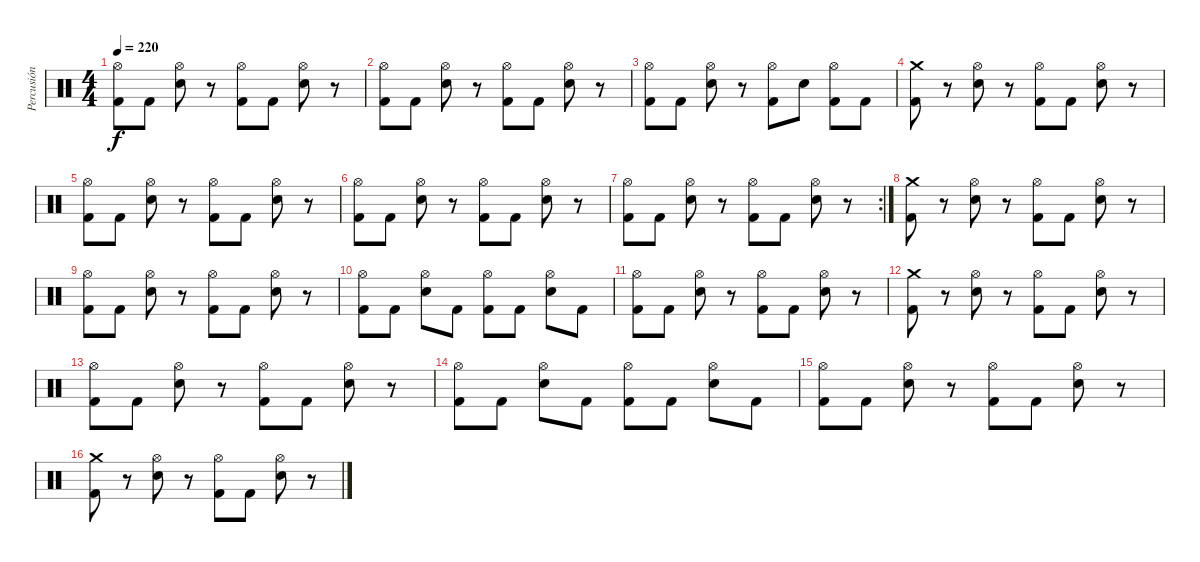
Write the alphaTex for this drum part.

\track ("Percusión" "Percusión") {instrument percussion}
\staff {score}
\articulation defaults
\ts (4 4)
\tempo 220
\clef neutral
\ks c
("Hi-Hat (open)" "Kick (hit) 2").8{dy f} "Kick (hit) 2".8 ("Hi-Hat (open)" "Electric Snare (hit)").8 r.8 ("Hi-Hat (open)" "Kick (hit) 2").8 "Kick (hit) 2".8 ("Hi-Hat (open)" "Electric Snare (hit)").8 r.8 |
("Hi-Hat (open)" "Kick (hit) 2").8 "Kick (hit) 2".8 ("Hi-Hat (open)" "Electric Snare (hit)").8 r.8 ("Hi-Hat (open)" "Kick (hit) 2").8 "Kick (hit) 2".8 ("Hi-Hat (open)" "Electric Snare (hit)").8 r.8 |
("Hi-Hat (open)" "Kick (hit) 2").8 "Kick (hit) 2".8 ("Hi-Hat (open)" "Electric Snare (hit)").8 r.8 ("Hi-Hat (open)" "Kick (hit) 2").8 "Electric Snare (hit)".8 ("Hi-Hat (open)" "Kick (hit) 2").8 "Kick (hit) 2".8 |
("Crash medium (hit)" "Kick (hit) 2").8 r.8 ("Hi-Hat (open)" "Electric Snare (hit)").8 r.8 ("Hi-Hat (open)" "Kick (hit) 2").8 "Kick (hit) 2".8 ("Hi-Hat (open)" "Electric Snare (hit)").8 r.8 |
("Hi-Hat (open)" "Kick (hit) 2").8 "Kick (hit) 2".8 ("Hi-Hat (open)" "Electric Snare (hit)").8 r.8 ("Hi-Hat (open)" "Kick (hit) 2").8 "Kick (hit) 2".8 ("Hi-Hat (open)" "Electric Snare (hit)").8 r.8 |
("Hi-Hat (open)" "Kick (hit) 2").8 "Kick (hit) 2".8 ("Hi-Hat (open)" "Electric Snare (hit)").8 r.8 ("Hi-Hat (open)" "Kick (hit) 2").8 "Kick (hit) 2".8 ("Hi-Hat (open)" "Electric Snare (hit)").8 r.8 |
\rc 2
("Hi-Hat (open)" "Kick (hit) 2").8 "Kick (hit) 2".8 ("Hi-Hat (open)" "Electric Snare (hit)").8 r.8 ("Hi-Hat (open)" "Kick (hit) 2").8 "Kick (hit) 2".8 ("Hi-Hat (open)" "Electric Snare (hit)").8 r.8 |
("Crash medium (hit)" "Kick (hit) 2").8 r.8 ("Hi-Hat (open)" "Electric Snare (hit)").8 r.8 ("Hi-Hat (open)" "Kick (hit) 2").8 "Kick (hit) 2".8 ("Hi-Hat (open)" "Electric Snare (hit)").8 r.8 |
("Hi-Hat (open)" "Kick (hit) 2").8 "Kick (hit) 2".8 ("Hi-Hat (open)" "Electric Snare (hit)").8 r.8 ("Hi-Hat (open)" "Kick (hit) 2").8 "Kick (hit) 2".8 ("Hi-Hat (open)" "Electric Snare (hit)").8 r.8 |
("Hi-Hat (open)" "Kick (hit) 2").8 "Kick (hit) 2".8 ("Hi-Hat (open)" "Electric Snare (hit)").8 "Kick (hit) 2".8 ("Hi-Hat (open)" "Kick (hit) 2").8 "Kick (hit) 2".8 ("Hi-Hat (open)" "Electric Snare (hit)").8 "Kick (hit) 2".8 |
("Hi-Hat (open)" "Kick (hit) 2").8 "Kick (hit) 2".8 ("Hi-Hat (open)" "Electric Snare (hit)").8 r.8 ("Hi-Hat (open)" "Kick (hit) 2").8 "Kick (hit) 2".8 ("Hi-Hat (open)" "Electric Snare (hit)").8 r.8 |
("Crash medium (hit)" "Kick (hit) 2").8 r.8 ("Hi-Hat (open)" "Electric Snare (hit)").8 r.8 ("Hi-Hat (open)" "Kick (hit) 2").8 "Kick (hit) 2".8 ("Hi-Hat (open)" "Electric Snare (hit)").8 r.8 |
("Hi-Hat (open)" "Kick (hit) 2").8 "Kick (hit) 2".8 ("Hi-Hat (open)" "Electric Snare (hit)").8 r.8 ("Hi-Hat (open)" "Kick (hit) 2").8 "Kick (hit) 2".8 ("Hi-Hat (open)" "Electric Snare (hit)").8 r.8 |
("Hi-Hat (open)" "Kick (hit) 2").8 "Kick (hit) 2".8 ("Hi-Hat (open)" "Electric Snare (hit)").8 "Kick (hit) 2".8 ("Hi-Hat (open)" "Kick (hit) 2").8 "Kick (hit) 2".8 ("Hi-Hat (open)" "Electric Snare (hit)").8 "Kick (hit) 2".8 |
("Hi-Hat (open)" "Kick (hit) 2").8 "Kick (hit) 2".8 ("Hi-Hat (open)" "Electric Snare (hit)").8 r.8 ("Hi-Hat (open)" "Kick (hit) 2").8 "Kick (hit) 2".8 ("Hi-Hat (open)" "Electric Snare (hit)").8 r.8 |
("Crash medium (hit)" "Kick (hit) 2").8 r.8 ("Hi-Hat (open)" "Electric Snare (hit)").8 r.8 ("Hi-Hat (open)" "Kick (hit) 2").8 "Kick (hit) 2".8 ("Hi-Hat (open)" "Electric Snare (hit)").8 r.8
